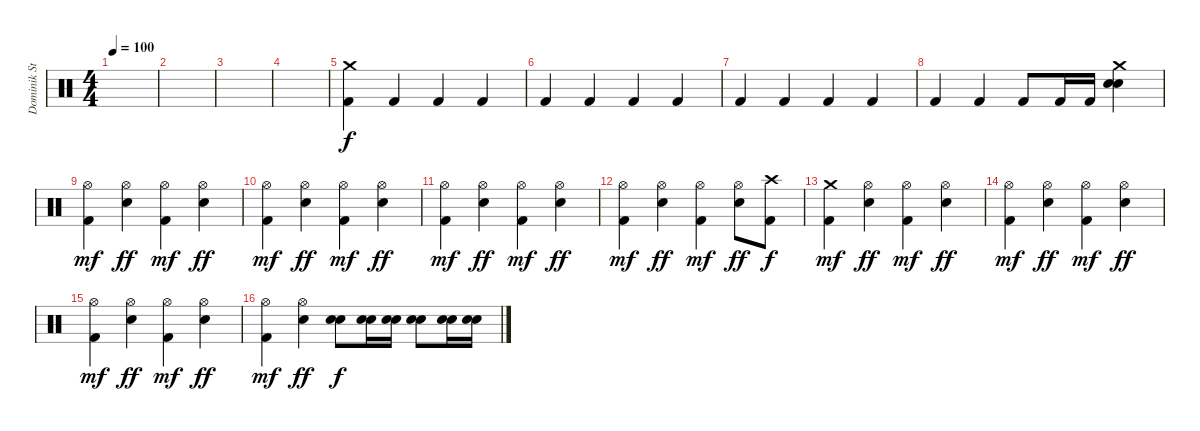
\track ("Dominik Storch" "Dominik St") {instrument percussion}
\staff {score}
\articulation defaults
\ts (4 4)
\tempo 100
\clef neutral
\ks c
|
|
|
|
("Crash medium (hit)" "Kick (hit) 2").4 "Kick (hit) 2".4 "Kick (hit) 2".4 "Kick (hit) 2".4 |
"Kick (hit) 2".4 "Kick (hit) 2".4 "Kick (hit) 2".4 "Kick (hit) 2".4 |
"Kick (hit) 2".4 "Kick (hit) 2".4 "Kick (hit) 2".4 "Kick (hit) 2".4 |
"Kick (hit) 2".4 "Kick (hit) 2".4 "Kick (hit) 2".8 "Kick (hit) 2".16 "Kick (hit) 2".16 ("Crash medium (hit)" "Electric Snare (hit)" "Electric Snare (hit)").4 |
("Hi-Hat (open)" "Kick (hit) 2").4{dy mf} ("Hi-Hat (open)" "Electric Snare (hit)").4{dy ff} ("Hi-Hat (open)" "Kick (hit) 2").4{dy mf} ("Hi-Hat (open)" "Electric Snare (hit)").4{dy ff} |
("Hi-Hat (open)" "Kick (hit) 2").4{dy mf} ("Hi-Hat (open)" "Electric Snare (hit)").4{dy ff} ("Hi-Hat (open)" "Kick (hit) 2").4{dy mf} ("Hi-Hat (open)" "Electric Snare (hit)").4{dy ff} |
("Hi-Hat (open)" "Kick (hit) 2").4{dy mf} ("Hi-Hat (open)" "Electric Snare (hit)").4{dy ff} ("Hi-Hat (open)" "Kick (hit) 2").4{dy mf} ("Hi-Hat (open)" "Electric Snare (hit)").4{dy ff} |
("Hi-Hat (open)" "Kick (hit) 2").4{dy mf} ("Hi-Hat (open)" "Electric Snare (hit)").4{dy ff} ("Hi-Hat (open)" "Kick (hit) 2").4{dy mf} ("Hi-Hat (open)" "Electric Snare (hit)").8{dy ff} ("Crash high (hit)" "Kick (hit) 2").8{dy f} |
("Crash medium (hit)" "Kick (hit) 2").4{dy mf} ("Hi-Hat (open)" "Electric Snare (hit)").4{dy ff} ("Hi-Hat (open)" "Kick (hit) 2").4{dy mf} ("Hi-Hat (open)" "Electric Snare (hit)").4{dy ff} |
("Hi-Hat (open)" "Kick (hit) 2").4{dy mf} ("Hi-Hat (open)" "Electric Snare (hit)").4{dy ff} ("Hi-Hat (open)" "Kick (hit) 2").4{dy mf} ("Hi-Hat (open)" "Electric Snare (hit)").4{dy ff} |
("Hi-Hat (open)" "Kick (hit) 2").4{dy mf} ("Hi-Hat (open)" "Electric Snare (hit)").4{dy ff} ("Hi-Hat (open)" "Kick (hit) 2").4{dy mf} ("Hi-Hat (open)" "Electric Snare (hit)").4{dy ff} |
("Hi-Hat (open)" "Kick (hit) 2").4{dy mf} ("Hi-Hat (open)" "Electric Snare (hit)").4{dy ff} ("Electric Snare (hit)" "Electric Snare (hit)").8{dy f} ("Electric Snare (hit)" "Electric Snare (hit)").16 ("Electric Snare (hit)" "Electric Snare (hit)").16 ("Electric Snare (hit)" "Electric Snare (hit)").8 ("Electric Snare (hit)" "Electric Snare (hit)").16 ("Electric Snare (hit)" "Electric Snare (hit)").16
